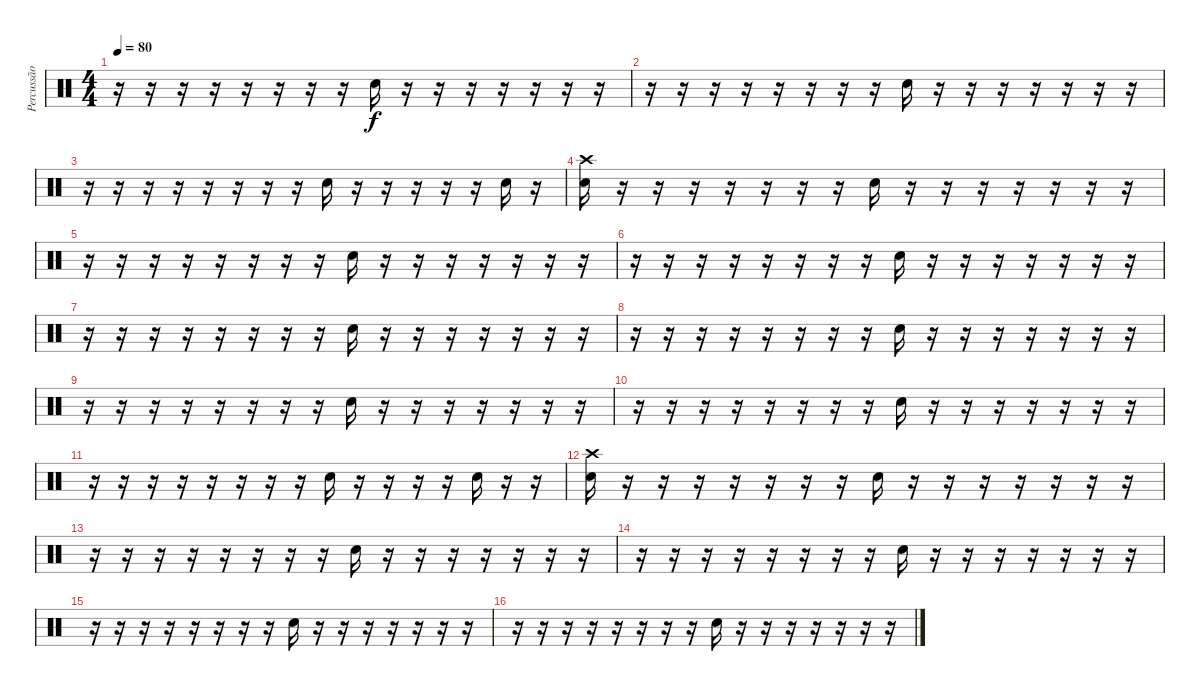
\track ("Percussão" "Percussão") {instrument percussion}
\staff {score}
\articulation defaults
\ts (4 4)
\tempo 80
\clef neutral
\ks c
r.16{dy f} r.16 r.16 r.16 r.16 r.16 r.16 r.16 "Electric Snare (hit)".16 r.16 r.16 r.16 r.16 r.16 r.16 r.16 |
r.16 r.16 r.16 r.16 r.16 r.16 r.16 r.16 "Electric Snare (hit)".16 r.16 r.16 r.16 r.16 r.16 r.16 r.16 |
r.16 r.16 r.16 r.16 r.16 r.16 r.16 r.16 "Electric Snare (hit)".16 r.16 r.16 r.16 r.16 r.16 "Electric Snare (hit)".16 r.16 |
("Crash high (hit)" "Electric Snare (hit)").16 r.16 r.16 r.16 r.16 r.16 r.16 r.16 "Electric Snare (hit)".16 r.16 r.16 r.16 r.16 r.16 r.16 r.16 |
r.16 r.16 r.16 r.16 r.16 r.16 r.16 r.16 "Electric Snare (hit)".16 r.16 r.16 r.16 r.16 r.16 r.16 r.16 |
r.16 r.16 r.16 r.16 r.16 r.16 r.16 r.16 "Electric Snare (hit)".16 r.16 r.16 r.16 r.16 r.16 r.16 r.16 |
r.16 r.16 r.16 r.16 r.16 r.16 r.16 r.16 "Electric Snare (hit)".16 r.16 r.16 r.16 r.16 r.16 r.16 r.16 |
r.16 r.16 r.16 r.16 r.16 r.16 r.16 r.16 "Electric Snare (hit)".16 r.16 r.16 r.16 r.16 r.16 r.16 r.16 |
r.16 r.16 r.16 r.16 r.16 r.16 r.16 r.16 "Electric Snare (hit)".16 r.16 r.16 r.16 r.16 r.16 r.16 r.16 |
r.16 r.16 r.16 r.16 r.16 r.16 r.16 r.16 "Electric Snare (hit)".16 r.16 r.16 r.16 r.16 r.16 r.16 r.16 |
r.16 r.16 r.16 r.16 r.16 r.16 r.16 r.16 "Electric Snare (hit)".16 r.16 r.16 r.16 r.16 "Electric Snare (hit)".16 r.16 r.16 |
("Crash high (hit)" "Electric Snare (hit)").16 r.16 r.16 r.16 r.16 r.16 r.16 r.16 "Electric Snare (hit)".16 r.16 r.16 r.16 r.16 r.16 r.16 r.16 |
r.16 r.16 r.16 r.16 r.16 r.16 r.16 r.16 "Electric Snare (hit)".16 r.16 r.16 r.16 r.16 r.16 r.16 r.16 |
r.16 r.16 r.16 r.16 r.16 r.16 r.16 r.16 "Electric Snare (hit)".16 r.16 r.16 r.16 r.16 r.16 r.16 r.16 |
r.16 r.16 r.16 r.16 r.16 r.16 r.16 r.16 "Electric Snare (hit)".16 r.16 r.16 r.16 r.16 r.16 r.16 r.16 |
r.16 r.16 r.16 r.16 r.16 r.16 r.16 r.16 "Electric Snare (hit)".16 r.16 r.16 r.16 r.16 r.16 r.16 r.16
